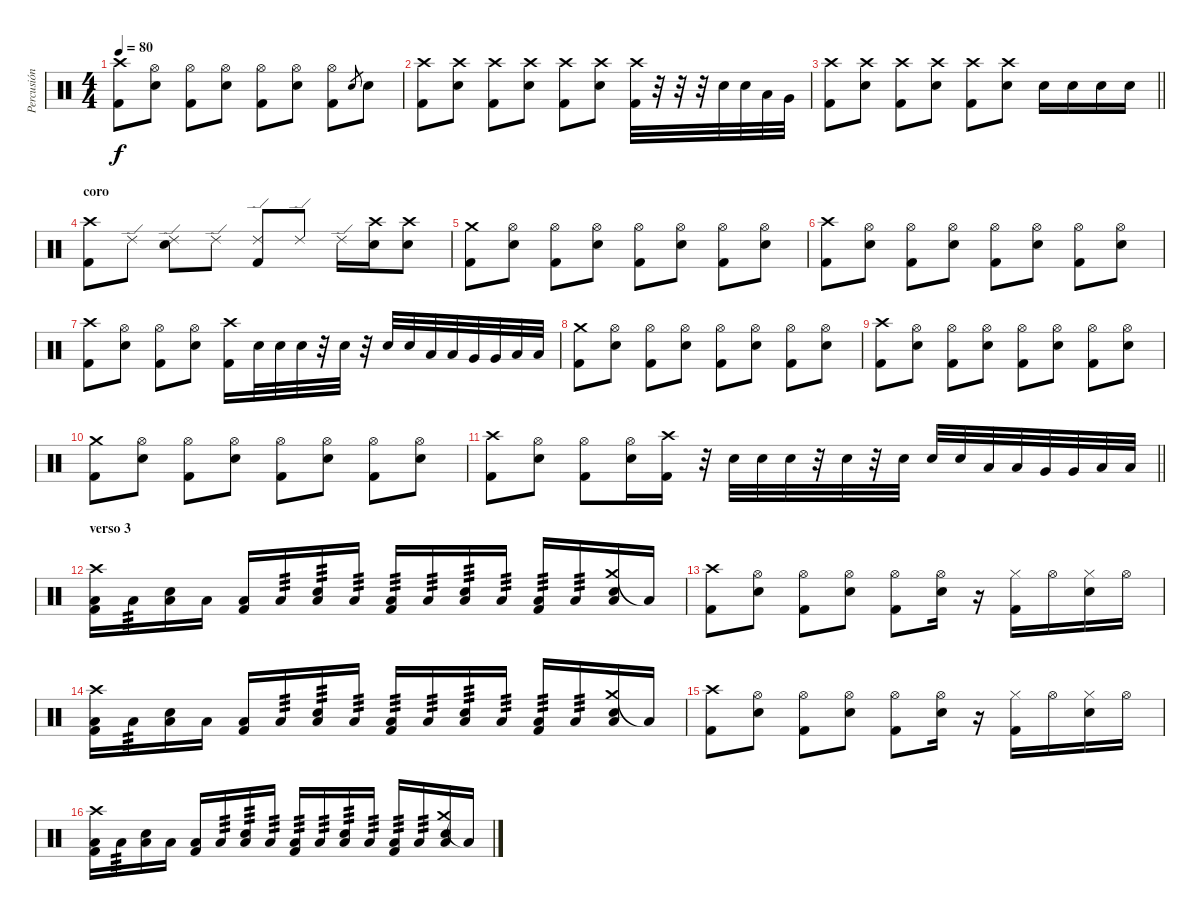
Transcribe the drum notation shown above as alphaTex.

\track ("Percusión" "Percusión") {instrument percussion}
\staff {score}
\articulation defaults
\ts (4 4)
\tempo 80
\clef neutral
\ks c
("Crash high (hit)" "Kick (hit) 2").8{dy f} ("Hi-Hat (open)" "Electric Snare (hit)").8 ("Hi-Hat (open)" "Kick (hit) 2").8 ("Hi-Hat (open)" "Electric Snare (hit)").8 ("Hi-Hat (open)" "Kick (hit) 2").8 ("Hi-Hat (open)" "Electric Snare (hit)").8 ("Hi-Hat (open)" "Kick (hit) 2").8 "Electric Snare (hit)".8{gr} "Electric Snare (hit)".8 |
("Crash high (hit)" "Kick (hit) 2").8 ("Crash high (hit)" "Electric Snare (hit)").8 ("Crash high (hit)" "Kick (hit) 2").8 ("Crash high (hit)" "Electric Snare (hit)").8 ("Crash high (hit)" "Kick (hit) 2").8 ("Crash high (hit)" "Electric Snare (hit)").8 ("Crash high (hit)" "Kick (hit) 2").32 r.32 r.32 r.32 "Electric Snare (hit)".32 "Electric Snare (hit)".32 "Low Tom (hit)".32 "Very Low Tom (hit)".32 |
\barLineRight lightlight
("Crash high (hit)" "Kick (hit) 2").8 ("Crash high (hit)" "Electric Snare (hit)").8 ("Crash high (hit)" "Kick (hit) 2").8 ("Crash high (hit)" "Electric Snare (hit)").8 ("Crash high (hit)" "Kick (hit) 2").8 ("Crash high (hit)" "Electric Snare (hit)").8 "Electric Snare (hit)".16 "Electric Snare (hit)".16 "Electric Snare (hit)".16 "Electric Snare (hit)".16 |
\section ("" "coro")
("Crash high (hit)" "Kick (hit) 2").8 "Ride (edge) 2".8 ("Ride (edge) 2" "Electric Snare (hit)").8 "Ride (edge) 2".8 ("Ride (edge) 2" "Kick (hit) 2").8 "Ride (edge) 2".8 "Ride (edge) 2".16 ("Crash high (hit)" "Electric Snare (hit)").16 ("Crash high (hit)" "Electric Snare (hit)").8 |
("Crash medium (hit)" "Kick (hit) 2").8 ("Hi-Hat (open)" "Electric Snare (hit)").8 ("Hi-Hat (open)" "Kick (hit) 2").8 ("Hi-Hat (open)" "Electric Snare (hit)").8 ("Hi-Hat (open)" "Kick (hit) 2").8 ("Hi-Hat (open)" "Electric Snare (hit)").8 ("Hi-Hat (open)" "Kick (hit) 2").8 ("Hi-Hat (open)" "Electric Snare (hit)").8 |
("Crash high (hit)" "Kick (hit) 2").8 ("Hi-Hat (open)" "Electric Snare (hit)").8 ("Hi-Hat (open)" "Kick (hit) 2").8 ("Hi-Hat (open)" "Electric Snare (hit)").8 ("Hi-Hat (open)" "Kick (hit) 2").8 ("Hi-Hat (open)" "Electric Snare (hit)").8 ("Hi-Hat (open)" "Kick (hit) 2").8 ("Hi-Hat (open)" "Electric Snare (hit)").8 |
("Crash high (hit)" "Kick (hit) 2").8 ("Hi-Hat (open)" "Electric Snare (hit)").8 ("Hi-Hat (open)" "Kick (hit) 2").8 ("Hi-Hat (open)" "Electric Snare (hit)").8 ("Crash high (hit)" "Kick (hit) 2").16 "Electric Snare (hit)".32 "Electric Snare (hit)".32 "Electric Snare (hit)".32 r.32 "Electric Snare (hit)".32 r.32 "Electric Snare (hit)".32 "Electric Snare (hit)".32 "Low Tom (hit)".32 "Low Tom (hit)".32 "Very Low Tom (hit)".32 "Very Low Tom (hit)".32 "Low Floor Tom (hit)".32 "Low Floor Tom (hit)".32 |
("Crash medium (hit)" "Kick (hit) 2").8 ("Hi-Hat (open)" "Electric Snare (hit)").8 ("Hi-Hat (open)" "Kick (hit) 2").8 ("Hi-Hat (open)" "Electric Snare (hit)").8 ("Hi-Hat (open)" "Kick (hit) 2").8 ("Hi-Hat (open)" "Electric Snare (hit)").8 ("Hi-Hat (open)" "Kick (hit) 2").8 ("Hi-Hat (open)" "Electric Snare (hit)").8 |
("Crash high (hit)" "Kick (hit) 2").8 ("Hi-Hat (open)" "Electric Snare (hit)").8 ("Hi-Hat (open)" "Kick (hit) 2").8 ("Hi-Hat (open)" "Electric Snare (hit)").8 ("Hi-Hat (open)" "Kick (hit) 2").8 ("Hi-Hat (open)" "Electric Snare (hit)").8 ("Hi-Hat (open)" "Kick (hit) 2").8 ("Hi-Hat (open)" "Electric Snare (hit)").8 |
("Crash medium (hit)" "Kick (hit) 2").8 ("Hi-Hat (open)" "Electric Snare (hit)").8 ("Hi-Hat (open)" "Kick (hit) 2").8 ("Hi-Hat (open)" "Electric Snare (hit)").8 ("Hi-Hat (open)" "Kick (hit) 2").8 ("Hi-Hat (open)" "Electric Snare (hit)").8 ("Hi-Hat (open)" "Kick (hit) 2").8 ("Hi-Hat (open)" "Electric Snare (hit)").8 |
\barLineRight lightlight
("Crash high (hit)" "Kick (hit) 2").8 ("Hi-Hat (open)" "Electric Snare (hit)").8 ("Hi-Hat (open)" "Kick (hit) 2").8 ("Hi-Hat (open)" "Electric Snare (hit)").16 ("Crash high (hit)" "Kick (hit) 2").16 r.32 "Electric Snare (hit)".32 "Electric Snare (hit)".32 "Electric Snare (hit)".32 r.32 "Electric Snare (hit)".32 r.32 "Electric Snare (hit)".32 "Electric Snare (hit)".32 "Electric Snare (hit)".32 "Low Tom (hit)".32 "Low Tom (hit)".32 "Very Low Tom (hit)".32 "Very Low Tom (hit)".32 "Low Floor Tom (hit)".32 "Low Floor Tom (hit)".32 |
\section ("" "verso 3")
("Crash high (hit)" "Low Floor Tom (hit)" "Kick (hit) 2").16 "Low Floor Tom (hit)".16{tp 3} ("Low Floor Tom (hit)" "Electric Snare (hit)").16 "Low Floor Tom (hit)".16 ("Low Floor Tom (hit)" "Kick (hit) 2").16 "Low Floor Tom (hit)".16{tp 3} ("Low Floor Tom (hit)" "Electric Snare (hit)").16{tp 3} "Low Floor Tom (hit)".16{tp 3} ("Low Floor Tom (hit)" "Kick (hit) 2").16{tp 3} "Low Floor Tom (hit)".16{tp 3} ("Low Floor Tom (hit)" "Electric Snare (hit)").16{tp 3} "Low Floor Tom (hit)".16{tp 3} ("Low Floor Tom (hit)" "Kick (hit) 2").16{tp 3} "Low Floor Tom (hit)".16{tp 3} ("Crash medium (hit)" "Low Floor Tom (hit)" "Electric Snare (hit)").16 "Low Floor Tom (hit)"{t}.16 |
("Crash high (hit)" "Kick (hit) 2").8 ("Hi-Hat (open)" "Electric Snare (hit)").8 ("Hi-Hat (open)" "Kick (hit) 2").8 ("Hi-Hat (open)" "Electric Snare (hit)").8 ("Hi-Hat (open)" "Kick (hit) 2").8 ("Hi-Hat (open)" "Electric Snare (hit)").16 r.16 ("Hi-Hat (closed)" "Kick (hit) 2").16 "Hi-Hat (open)".16 ("Hi-Hat (closed)" "Electric Snare (hit)").16 "Hi-Hat (open)".16 |
("Crash high (hit)" "Low Floor Tom (hit)" "Kick (hit) 2").16 "Low Floor Tom (hit)".16{tp 3} ("Low Floor Tom (hit)" "Electric Snare (hit)").16 "Low Floor Tom (hit)".16 ("Low Floor Tom (hit)" "Kick (hit) 2").16 "Low Floor Tom (hit)".16{tp 3} ("Low Floor Tom (hit)" "Electric Snare (hit)").16{tp 3} "Low Floor Tom (hit)".16{tp 3} ("Low Floor Tom (hit)" "Kick (hit) 2").16{tp 3} "Low Floor Tom (hit)".16{tp 3} ("Low Floor Tom (hit)" "Electric Snare (hit)").16{tp 3} "Low Floor Tom (hit)".16{tp 3} ("Low Floor Tom (hit)" "Kick (hit) 2").16{tp 3} "Low Floor Tom (hit)".16{tp 3} ("Crash medium (hit)" "Low Floor Tom (hit)" "Electric Snare (hit)").16 "Low Floor Tom (hit)"{t}.16 |
("Crash high (hit)" "Kick (hit) 2").8 ("Hi-Hat (open)" "Electric Snare (hit)").8 ("Hi-Hat (open)" "Kick (hit) 2").8 ("Hi-Hat (open)" "Electric Snare (hit)").8 ("Hi-Hat (open)" "Kick (hit) 2").8 ("Hi-Hat (open)" "Electric Snare (hit)").16 r.16 ("Hi-Hat (closed)" "Kick (hit) 2").16 "Hi-Hat (open)".16 ("Hi-Hat (closed)" "Electric Snare (hit)").16 "Hi-Hat (open)".16 |
("Crash high (hit)" "Low Floor Tom (hit)" "Kick (hit) 2").16 "Low Floor Tom (hit)".16{tp 3} ("Low Floor Tom (hit)" "Electric Snare (hit)").16 "Low Floor Tom (hit)".16 ("Low Floor Tom (hit)" "Kick (hit) 2").16 "Low Floor Tom (hit)".16{tp 3} ("Low Floor Tom (hit)" "Electric Snare (hit)").16{tp 3} "Low Floor Tom (hit)".16{tp 3} ("Low Floor Tom (hit)" "Kick (hit) 2").16{tp 3} "Low Floor Tom (hit)".16{tp 3} ("Low Floor Tom (hit)" "Electric Snare (hit)").16{tp 3} "Low Floor Tom (hit)".16{tp 3} ("Low Floor Tom (hit)" "Kick (hit) 2").16{tp 3} "Low Floor Tom (hit)".16{tp 3} ("Crash medium (hit)" "Low Floor Tom (hit)" "Electric Snare (hit)").16 "Low Floor Tom (hit)"{t}.16
